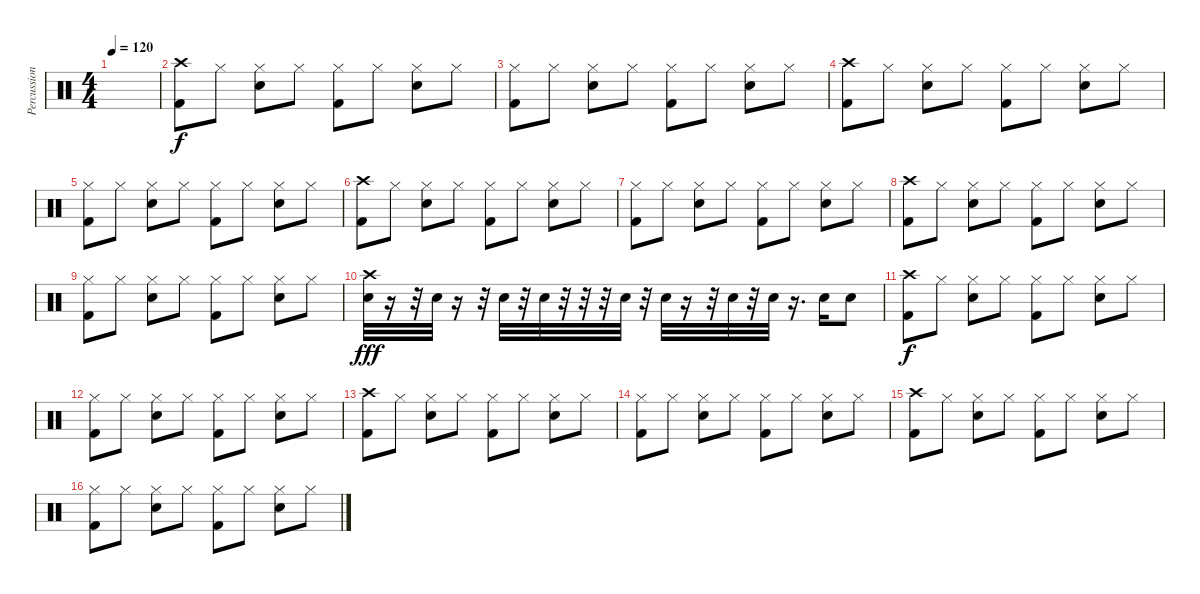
\track ("Percussion" "Percussion") {instrument percussion}
\staff {score}
\articulation defaults
\ts (4 4)
\tempo 120
\clef neutral
\ks c
|
("Crash high (hit)" "Kick (hit) 2").8 "Hi-Hat (closed)".8 ("Hi-Hat (closed)" "Electric Snare (hit)").8 "Hi-Hat (closed)".8 ("Hi-Hat (closed)" "Kick (hit) 2").8 "Hi-Hat (closed)".8 ("Hi-Hat (closed)" "Electric Snare (hit)").8 "Hi-Hat (closed)".8 |
("Hi-Hat (closed)" "Kick (hit) 2").8 "Hi-Hat (closed)".8 ("Hi-Hat (closed)" "Electric Snare (hit)").8 "Hi-Hat (closed)".8 ("Hi-Hat (closed)" "Kick (hit) 2").8 "Hi-Hat (closed)".8 ("Hi-Hat (closed)" "Electric Snare (hit)").8 "Hi-Hat (closed)".8 |
("Crash high (hit)" "Kick (hit) 2").8 "Hi-Hat (closed)".8 ("Hi-Hat (closed)" "Electric Snare (hit)").8 "Hi-Hat (closed)".8 ("Hi-Hat (closed)" "Kick (hit) 2").8 "Hi-Hat (closed)".8 ("Hi-Hat (closed)" "Electric Snare (hit)").8 "Hi-Hat (closed)".8 |
("Hi-Hat (closed)" "Kick (hit) 2").8 "Hi-Hat (closed)".8 ("Hi-Hat (closed)" "Electric Snare (hit)").8 "Hi-Hat (closed)".8 ("Hi-Hat (closed)" "Kick (hit) 2").8 "Hi-Hat (closed)".8 ("Hi-Hat (closed)" "Electric Snare (hit)").8 "Hi-Hat (closed)".8 |
("Crash high (hit)" "Kick (hit) 2").8 "Hi-Hat (closed)".8 ("Hi-Hat (closed)" "Electric Snare (hit)").8 "Hi-Hat (closed)".8 ("Hi-Hat (closed)" "Kick (hit) 2").8 "Hi-Hat (closed)".8 ("Hi-Hat (closed)" "Electric Snare (hit)").8 "Hi-Hat (closed)".8 |
("Hi-Hat (closed)" "Kick (hit) 2").8 "Hi-Hat (closed)".8 ("Hi-Hat (closed)" "Electric Snare (hit)").8 "Hi-Hat (closed)".8 ("Hi-Hat (closed)" "Kick (hit) 2").8 "Hi-Hat (closed)".8 ("Hi-Hat (closed)" "Electric Snare (hit)").8 "Hi-Hat (closed)".8 |
("Crash high (hit)" "Kick (hit) 2").8 "Hi-Hat (closed)".8 ("Hi-Hat (closed)" "Electric Snare (hit)").8 "Hi-Hat (closed)".8 ("Hi-Hat (closed)" "Kick (hit) 2").8 "Hi-Hat (closed)".8 ("Hi-Hat (closed)" "Electric Snare (hit)").8 "Hi-Hat (closed)".8 |
("Hi-Hat (closed)" "Kick (hit) 2").8 "Hi-Hat (closed)".8 ("Hi-Hat (closed)" "Electric Snare (hit)").8 "Hi-Hat (closed)".8 ("Hi-Hat (closed)" "Kick (hit) 2").8 "Hi-Hat (closed)".8 ("Hi-Hat (closed)" "Electric Snare (hit)").8 "Hi-Hat (closed)".8 |
("Electric Snare (hit)" "Crash high (hit)").32{dy fff} r.16 r.32 "Electric Snare (hit)".32 r.16 r.32 "Electric Snare (hit)".32 r.32 "Electric Snare (hit)".32 r.32 r.32 r.32 "Electric Snare (hit)".32 r.32 "Electric Snare (hit)".32 r.16 r.32 "Electric Snare (hit)".32 r.32 "Electric Snare (hit)".32 r.16{d} "Electric Snare (hit)".16 "Electric Snare (hit)".8 |
("Crash high (hit)" "Kick (hit) 2").8{dy f} "Hi-Hat (closed)".8 ("Hi-Hat (closed)" "Electric Snare (hit)").8 "Hi-Hat (closed)".8 ("Hi-Hat (closed)" "Kick (hit) 2").8 "Hi-Hat (closed)".8 ("Hi-Hat (closed)" "Electric Snare (hit)").8 "Hi-Hat (closed)".8 |
("Hi-Hat (closed)" "Kick (hit) 2").8 "Hi-Hat (closed)".8 ("Hi-Hat (closed)" "Electric Snare (hit)").8 "Hi-Hat (closed)".8 ("Hi-Hat (closed)" "Kick (hit) 2").8 "Hi-Hat (closed)".8 ("Hi-Hat (closed)" "Electric Snare (hit)").8 "Hi-Hat (closed)".8 |
("Crash high (hit)" "Kick (hit) 2").8 "Hi-Hat (closed)".8 ("Hi-Hat (closed)" "Electric Snare (hit)").8 "Hi-Hat (closed)".8 ("Hi-Hat (closed)" "Kick (hit) 2").8 "Hi-Hat (closed)".8 ("Hi-Hat (closed)" "Electric Snare (hit)").8 "Hi-Hat (closed)".8 |
("Hi-Hat (closed)" "Kick (hit) 2").8 "Hi-Hat (closed)".8 ("Hi-Hat (closed)" "Electric Snare (hit)").8 "Hi-Hat (closed)".8 ("Hi-Hat (closed)" "Kick (hit) 2").8 "Hi-Hat (closed)".8 ("Hi-Hat (closed)" "Electric Snare (hit)").8 "Hi-Hat (closed)".8 |
("Crash high (hit)" "Kick (hit) 2").8 "Hi-Hat (closed)".8 ("Hi-Hat (closed)" "Electric Snare (hit)").8 "Hi-Hat (closed)".8 ("Hi-Hat (closed)" "Kick (hit) 2").8 "Hi-Hat (closed)".8 ("Hi-Hat (closed)" "Electric Snare (hit)").8 "Hi-Hat (closed)".8 |
("Hi-Hat (closed)" "Kick (hit) 2").8 "Hi-Hat (closed)".8 ("Hi-Hat (closed)" "Electric Snare (hit)").8 "Hi-Hat (closed)".8 ("Hi-Hat (closed)" "Kick (hit) 2").8 "Hi-Hat (closed)".8 ("Hi-Hat (closed)" "Electric Snare (hit)").8 "Hi-Hat (closed)".8
